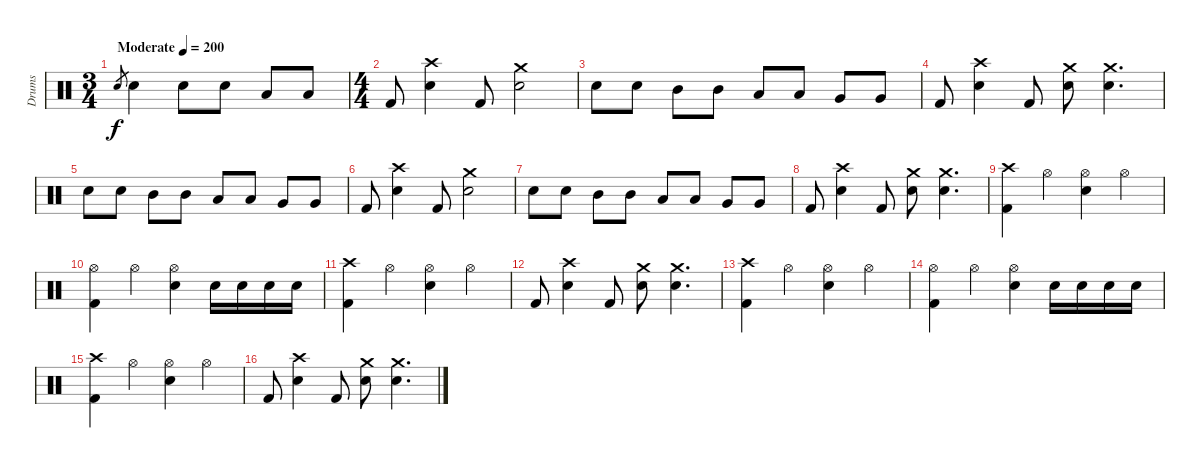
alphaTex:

\track ("Drums" "Drums") {instrument percussion}
\staff {score}
\articulation defaults
\ts (3 4)
\tempo (200 "Moderate")
\clef neutral
\ks c "Electric Snare (hit)".8{gr dy f} "Electric Snare (hit)".4 "Electric Snare (hit)".8 "Electric Snare (hit)".8 "Low Tom (hit)".8 "Low Tom (hit)".8
|
\ts (4 4)
"Kick (hit) 2".8 ("Crash high (hit)" "Electric Snare (hit)").4 "Kick (hit) 2".8 ("Crash medium (hit)" "Electric Snare (hit)").2 |
"Electric Snare (hit)".8 "Electric Snare (hit)".8 "Mid Tom (hit)".8 "Mid Tom (hit)".8 "Low Tom (hit)".8 "Low Tom (hit)".8 "Very Low Tom (hit)".8 "Very Low Tom (hit)".8 |
"Kick (hit) 2".8 ("Crash high (hit)" "Electric Snare (hit)").4 "Kick (hit) 2".8 ("Crash medium (hit)" "Electric Snare (hit)").8 ("Crash medium (hit)" "Electric Snare (hit)").4{d} |
"Electric Snare (hit)".8 "Electric Snare (hit)".8 "Mid Tom (hit)".8 "Mid Tom (hit)".8 "Low Tom (hit)".8 "Low Tom (hit)".8 "Very Low Tom (hit)".8 "Very Low Tom (hit)".8 |
"Kick (hit) 2".8 ("Crash high (hit)" "Electric Snare (hit)").4 "Kick (hit) 2".8 ("Crash medium (hit)" "Electric Snare (hit)").2 |
"Electric Snare (hit)".8 "Electric Snare (hit)".8 "Mid Tom (hit)".8 "Mid Tom (hit)".8 "Low Tom (hit)".8 "Low Tom (hit)".8 "Very Low Tom (hit)".8 "Very Low Tom (hit)".8 |
"Kick (hit) 2".8 ("Crash high (hit)" "Electric Snare (hit)").4 "Kick (hit) 2".8 ("Crash medium (hit)" "Electric Snare (hit)").8 ("Crash medium (hit)" "Electric Snare (hit)").4{d} |
("Crash high (hit)" "Kick (hit) 2").4 "Hi-Hat (open)".4 ("Hi-Hat (open)" "Electric Snare (hit)").4 "Hi-Hat (open)".4 |
("Hi-Hat (open)" "Kick (hit) 2").4 "Hi-Hat (open)".4 ("Hi-Hat (open)" "Electric Snare (hit)").4 "Electric Snare (hit)".16 "Electric Snare (hit)".16 "Electric Snare (hit)".16 "Electric Snare (hit)".16 |
("Crash high (hit)" "Kick (hit) 2").4 "Hi-Hat (open)".4 ("Hi-Hat (open)" "Electric Snare (hit)").4 "Hi-Hat (open)".4 |
"Kick (hit) 2".8 ("Crash high (hit)" "Electric Snare (hit)").4 "Kick (hit) 2".8 ("Crash medium (hit)" "Electric Snare (hit)").8 ("Crash medium (hit)" "Electric Snare (hit)").4{d} |
("Crash high (hit)" "Kick (hit) 2").4 "Hi-Hat (open)".4 ("Hi-Hat (open)" "Electric Snare (hit)").4 "Hi-Hat (open)".4 |
("Hi-Hat (open)" "Kick (hit) 2").4 "Hi-Hat (open)".4 ("Hi-Hat (open)" "Electric Snare (hit)").4 "Electric Snare (hit)".16 "Electric Snare (hit)".16 "Electric Snare (hit)".16 "Electric Snare (hit)".16 |
("Crash high (hit)" "Kick (hit) 2").4 "Hi-Hat (open)".4 ("Hi-Hat (open)" "Electric Snare (hit)").4 "Hi-Hat (open)".4 |
"Kick (hit) 2".8 ("Crash high (hit)" "Electric Snare (hit)").4 "Kick (hit) 2".8 ("Crash medium (hit)" "Electric Snare (hit)").8 ("Crash medium (hit)" "Electric Snare (hit)").4{d}
